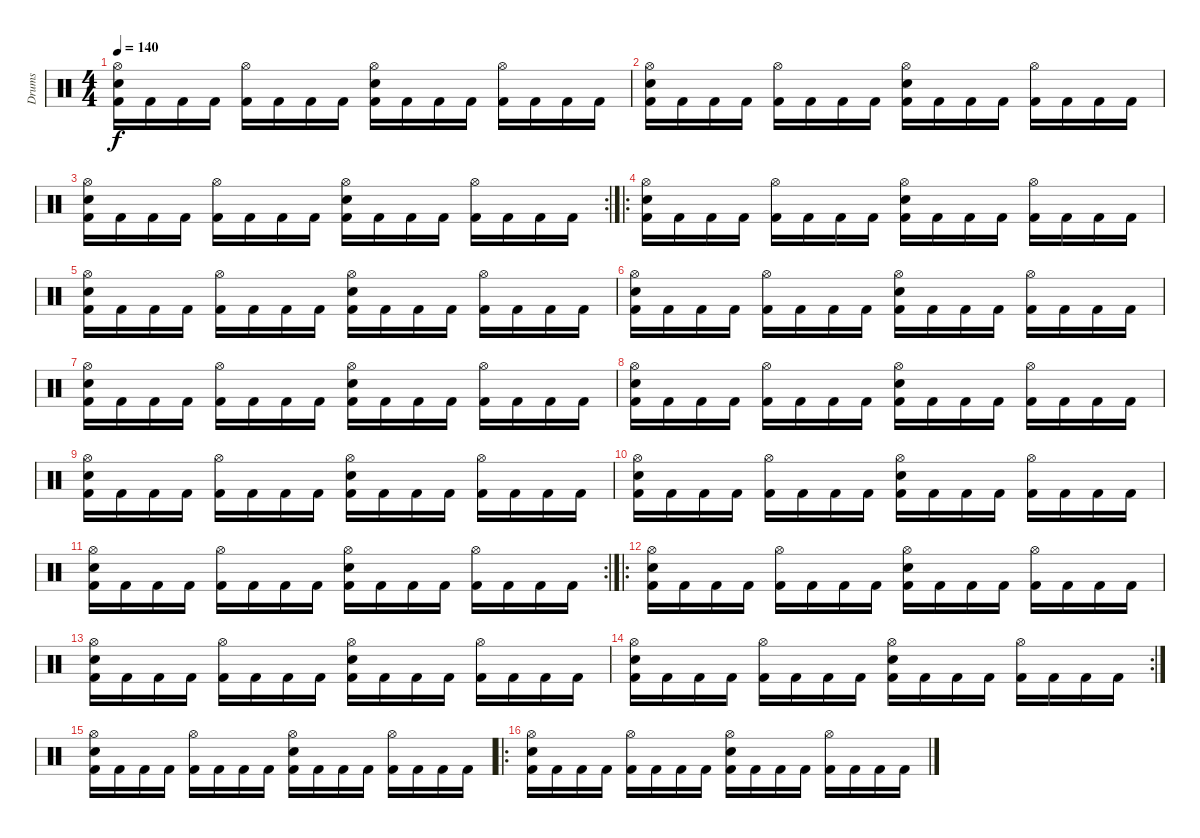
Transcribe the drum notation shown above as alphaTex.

\track ("Drums" "Drums") {instrument percussion}
\staff {score}
\articulation defaults
\ts (4 4)
\tempo 140
\clef neutral
\ks c
("Kick (hit) 2" "Electric Snare (hit)" "Hi-Hat (open)").16{dy f} "Kick (hit) 2".16 "Kick (hit) 2".16 "Kick (hit) 2".16 ("Kick (hit) 2" "Hi-Hat (open)").16 "Kick (hit) 2".16 "Kick (hit) 2".16 "Kick (hit) 2".16 ("Kick (hit) 2" "Electric Snare (hit)" "Hi-Hat (open)").16 "Kick (hit) 2".16 "Kick (hit) 2".16 "Kick (hit) 2".16 ("Kick (hit) 2" "Hi-Hat (open)").16 "Kick (hit) 2".16 "Kick (hit) 2".16 "Kick (hit) 2".16 |
("Kick (hit) 2" "Electric Snare (hit)" "Hi-Hat (open)").16 "Kick (hit) 2".16 "Kick (hit) 2".16 "Kick (hit) 2".16 ("Kick (hit) 2" "Hi-Hat (open)").16 "Kick (hit) 2".16 "Kick (hit) 2".16 "Kick (hit) 2".16 ("Kick (hit) 2" "Electric Snare (hit)" "Hi-Hat (open)").16 "Kick (hit) 2".16 "Kick (hit) 2".16 "Kick (hit) 2".16 ("Kick (hit) 2" "Hi-Hat (open)").16 "Kick (hit) 2".16 "Kick (hit) 2".16 "Kick (hit) 2".16 |
\rc 2
("Kick (hit) 2" "Electric Snare (hit)" "Hi-Hat (open)").16 "Kick (hit) 2".16 "Kick (hit) 2".16 "Kick (hit) 2".16 ("Kick (hit) 2" "Hi-Hat (open)").16 "Kick (hit) 2".16 "Kick (hit) 2".16 "Kick (hit) 2".16 ("Kick (hit) 2" "Electric Snare (hit)" "Hi-Hat (open)").16 "Kick (hit) 2".16 "Kick (hit) 2".16 "Kick (hit) 2".16 ("Kick (hit) 2" "Hi-Hat (open)").16 "Kick (hit) 2".16 "Kick (hit) 2".16 "Kick (hit) 2".16 |
\ro
("Kick (hit) 2" "Electric Snare (hit)" "Hi-Hat (open)").16 "Kick (hit) 2".16 "Kick (hit) 2".16 "Kick (hit) 2".16 ("Kick (hit) 2" "Hi-Hat (open)").16 "Kick (hit) 2".16 "Kick (hit) 2".16 "Kick (hit) 2".16 ("Kick (hit) 2" "Electric Snare (hit)" "Hi-Hat (open)").16 "Kick (hit) 2".16 "Kick (hit) 2".16 "Kick (hit) 2".16 ("Kick (hit) 2" "Hi-Hat (open)").16 "Kick (hit) 2".16 "Kick (hit) 2".16 "Kick (hit) 2".16 |
("Kick (hit) 2" "Electric Snare (hit)" "Hi-Hat (open)").16 "Kick (hit) 2".16 "Kick (hit) 2".16 "Kick (hit) 2".16 ("Kick (hit) 2" "Hi-Hat (open)").16 "Kick (hit) 2".16 "Kick (hit) 2".16 "Kick (hit) 2".16 ("Kick (hit) 2" "Electric Snare (hit)" "Hi-Hat (open)").16 "Kick (hit) 2".16 "Kick (hit) 2".16 "Kick (hit) 2".16 ("Kick (hit) 2" "Hi-Hat (open)").16 "Kick (hit) 2".16 "Kick (hit) 2".16 "Kick (hit) 2".16 |
("Kick (hit) 2" "Electric Snare (hit)" "Hi-Hat (open)").16 "Kick (hit) 2".16 "Kick (hit) 2".16 "Kick (hit) 2".16 ("Kick (hit) 2" "Hi-Hat (open)").16 "Kick (hit) 2".16 "Kick (hit) 2".16 "Kick (hit) 2".16 ("Kick (hit) 2" "Electric Snare (hit)" "Hi-Hat (open)").16 "Kick (hit) 2".16 "Kick (hit) 2".16 "Kick (hit) 2".16 ("Kick (hit) 2" "Hi-Hat (open)").16 "Kick (hit) 2".16 "Kick (hit) 2".16 "Kick (hit) 2".16 |
("Kick (hit) 2" "Electric Snare (hit)" "Hi-Hat (open)").16 "Kick (hit) 2".16 "Kick (hit) 2".16 "Kick (hit) 2".16 ("Kick (hit) 2" "Hi-Hat (open)").16 "Kick (hit) 2".16 "Kick (hit) 2".16 "Kick (hit) 2".16 ("Kick (hit) 2" "Electric Snare (hit)" "Hi-Hat (open)").16 "Kick (hit) 2".16 "Kick (hit) 2".16 "Kick (hit) 2".16 ("Kick (hit) 2" "Hi-Hat (open)").16 "Kick (hit) 2".16 "Kick (hit) 2".16 "Kick (hit) 2".16 |
("Kick (hit) 2" "Electric Snare (hit)" "Hi-Hat (open)").16 "Kick (hit) 2".16 "Kick (hit) 2".16 "Kick (hit) 2".16 ("Kick (hit) 2" "Hi-Hat (open)").16 "Kick (hit) 2".16 "Kick (hit) 2".16 "Kick (hit) 2".16 ("Kick (hit) 2" "Electric Snare (hit)" "Hi-Hat (open)").16 "Kick (hit) 2".16 "Kick (hit) 2".16 "Kick (hit) 2".16 ("Kick (hit) 2" "Hi-Hat (open)").16 "Kick (hit) 2".16 "Kick (hit) 2".16 "Kick (hit) 2".16 |
("Kick (hit) 2" "Electric Snare (hit)" "Hi-Hat (open)").16 "Kick (hit) 2".16 "Kick (hit) 2".16 "Kick (hit) 2".16 ("Kick (hit) 2" "Hi-Hat (open)").16 "Kick (hit) 2".16 "Kick (hit) 2".16 "Kick (hit) 2".16 ("Kick (hit) 2" "Electric Snare (hit)" "Hi-Hat (open)").16 "Kick (hit) 2".16 "Kick (hit) 2".16 "Kick (hit) 2".16 ("Kick (hit) 2" "Hi-Hat (open)").16 "Kick (hit) 2".16 "Kick (hit) 2".16 "Kick (hit) 2".16 |
("Kick (hit) 2" "Electric Snare (hit)" "Hi-Hat (open)").16 "Kick (hit) 2".16 "Kick (hit) 2".16 "Kick (hit) 2".16 ("Kick (hit) 2" "Hi-Hat (open)").16 "Kick (hit) 2".16 "Kick (hit) 2".16 "Kick (hit) 2".16 ("Kick (hit) 2" "Electric Snare (hit)" "Hi-Hat (open)").16 "Kick (hit) 2".16 "Kick (hit) 2".16 "Kick (hit) 2".16 ("Kick (hit) 2" "Hi-Hat (open)").16 "Kick (hit) 2".16 "Kick (hit) 2".16 "Kick (hit) 2".16 |
\rc 2
("Kick (hit) 2" "Electric Snare (hit)" "Hi-Hat (open)").16 "Kick (hit) 2".16 "Kick (hit) 2".16 "Kick (hit) 2".16 ("Kick (hit) 2" "Hi-Hat (open)").16 "Kick (hit) 2".16 "Kick (hit) 2".16 "Kick (hit) 2".16 ("Kick (hit) 2" "Electric Snare (hit)" "Hi-Hat (open)").16 "Kick (hit) 2".16 "Kick (hit) 2".16 "Kick (hit) 2".16 ("Kick (hit) 2" "Hi-Hat (open)").16 "Kick (hit) 2".16 "Kick (hit) 2".16 "Kick (hit) 2".16 |
\ro
("Kick (hit) 2" "Electric Snare (hit)" "Hi-Hat (open)").16 "Kick (hit) 2".16 "Kick (hit) 2".16 "Kick (hit) 2".16 ("Kick (hit) 2" "Hi-Hat (open)").16 "Kick (hit) 2".16 "Kick (hit) 2".16 "Kick (hit) 2".16 ("Kick (hit) 2" "Electric Snare (hit)" "Hi-Hat (open)").16 "Kick (hit) 2".16 "Kick (hit) 2".16 "Kick (hit) 2".16 ("Kick (hit) 2" "Hi-Hat (open)").16 "Kick (hit) 2".16 "Kick (hit) 2".16 "Kick (hit) 2".16 |
("Kick (hit) 2" "Electric Snare (hit)" "Hi-Hat (open)").16 "Kick (hit) 2".16 "Kick (hit) 2".16 "Kick (hit) 2".16 ("Kick (hit) 2" "Hi-Hat (open)").16 "Kick (hit) 2".16 "Kick (hit) 2".16 "Kick (hit) 2".16 ("Kick (hit) 2" "Electric Snare (hit)" "Hi-Hat (open)").16 "Kick (hit) 2".16 "Kick (hit) 2".16 "Kick (hit) 2".16 ("Kick (hit) 2" "Hi-Hat (open)").16 "Kick (hit) 2".16 "Kick (hit) 2".16 "Kick (hit) 2".16 |
\rc 2
("Kick (hit) 2" "Electric Snare (hit)" "Hi-Hat (open)").16 "Kick (hit) 2".16 "Kick (hit) 2".16 "Kick (hit) 2".16 ("Kick (hit) 2" "Hi-Hat (open)").16 "Kick (hit) 2".16 "Kick (hit) 2".16 "Kick (hit) 2".16 ("Kick (hit) 2" "Electric Snare (hit)" "Hi-Hat (open)").16 "Kick (hit) 2".16 "Kick (hit) 2".16 "Kick (hit) 2".16 ("Kick (hit) 2" "Hi-Hat (open)").16 "Kick (hit) 2".16 "Kick (hit) 2".16 "Kick (hit) 2".16 |
("Kick (hit) 2" "Electric Snare (hit)" "Hi-Hat (open)").16 "Kick (hit) 2".16 "Kick (hit) 2".16 "Kick (hit) 2".16 ("Kick (hit) 2" "Hi-Hat (open)").16 "Kick (hit) 2".16 "Kick (hit) 2".16 "Kick (hit) 2".16 ("Kick (hit) 2" "Electric Snare (hit)" "Hi-Hat (open)").16 "Kick (hit) 2".16 "Kick (hit) 2".16 "Kick (hit) 2".16 ("Kick (hit) 2" "Hi-Hat (open)").16 "Kick (hit) 2".16 "Kick (hit) 2".16 "Kick (hit) 2".16 |
\ro
("Kick (hit) 2" "Electric Snare (hit)" "Hi-Hat (open)").16 "Kick (hit) 2".16 "Kick (hit) 2".16 "Kick (hit) 2".16 ("Kick (hit) 2" "Hi-Hat (open)").16 "Kick (hit) 2".16 "Kick (hit) 2".16 "Kick (hit) 2".16 ("Kick (hit) 2" "Electric Snare (hit)" "Hi-Hat (open)").16 "Kick (hit) 2".16 "Kick (hit) 2".16 "Kick (hit) 2".16 ("Kick (hit) 2" "Hi-Hat (open)").16 "Kick (hit) 2".16 "Kick (hit) 2".16 "Kick (hit) 2".16
